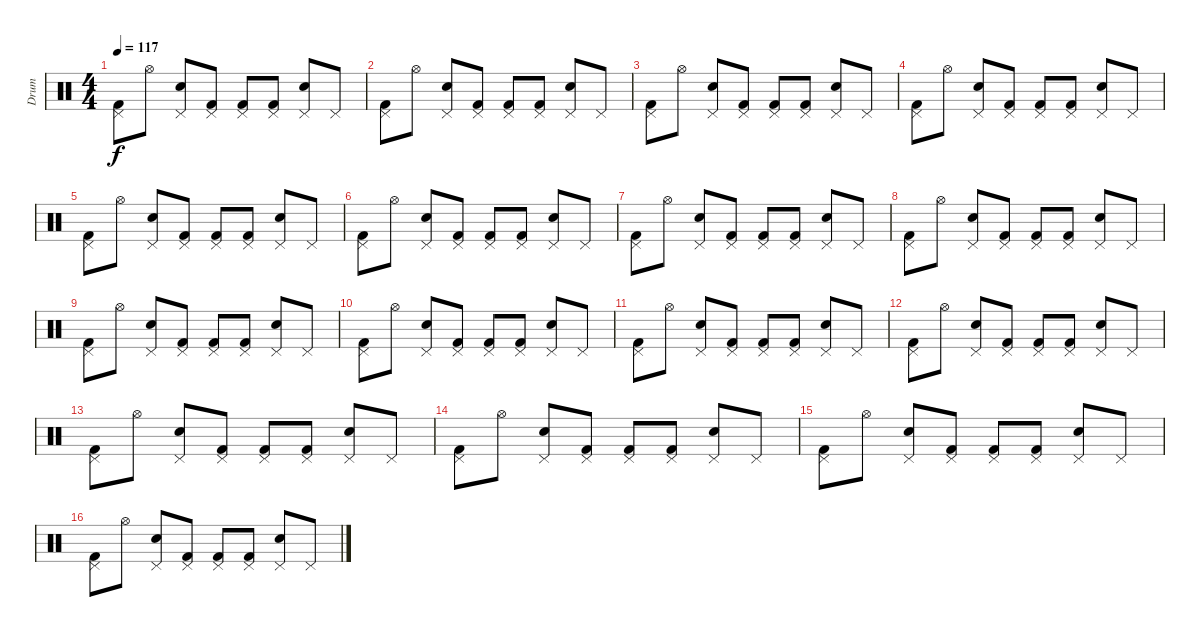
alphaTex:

\track ("Drum" "Drum") {instrument percussion}
\staff {score}
\articulation defaults
\ts (4 4)
\tempo 117
\clef neutral
\ks c
("Pedal Hi-Hat (hit)" "Kick (hit) 2").8{dy f} "Hi-Hat (open)".8 ("Pedal Hi-Hat (hit)" "Snare (hit) 2").8 ("Pedal Hi-Hat (hit)" "Kick (hit) 2").8 ("Pedal Hi-Hat (hit)" "Kick (hit) 2").8 ("Pedal Hi-Hat (hit)" "Kick (hit) 2").8 ("Pedal Hi-Hat (hit)" "Snare (hit) 2").8 "Pedal Hi-Hat (hit)".8 |
("Pedal Hi-Hat (hit)" "Kick (hit) 2").8 "Hi-Hat (open)".8 ("Pedal Hi-Hat (hit)" "Snare (hit) 2").8 ("Pedal Hi-Hat (hit)" "Kick (hit) 2").8 ("Pedal Hi-Hat (hit)" "Kick (hit) 2").8 ("Pedal Hi-Hat (hit)" "Kick (hit) 2").8 ("Pedal Hi-Hat (hit)" "Snare (hit) 2").8 "Pedal Hi-Hat (hit)".8 |
("Pedal Hi-Hat (hit)" "Kick (hit) 2").8 "Hi-Hat (open)".8 ("Pedal Hi-Hat (hit)" "Snare (hit) 2").8 ("Pedal Hi-Hat (hit)" "Kick (hit) 2").8 ("Pedal Hi-Hat (hit)" "Kick (hit) 2").8 ("Pedal Hi-Hat (hit)" "Kick (hit) 2").8 ("Pedal Hi-Hat (hit)" "Snare (hit) 2").8 "Pedal Hi-Hat (hit)".8 |
("Pedal Hi-Hat (hit)" "Kick (hit) 2").8 "Hi-Hat (open)".8 ("Pedal Hi-Hat (hit)" "Snare (hit) 2").8 ("Pedal Hi-Hat (hit)" "Kick (hit) 2").8 ("Pedal Hi-Hat (hit)" "Kick (hit) 2").8 ("Pedal Hi-Hat (hit)" "Kick (hit) 2").8 ("Pedal Hi-Hat (hit)" "Snare (hit) 2").8 "Pedal Hi-Hat (hit)".8 |
("Pedal Hi-Hat (hit)" "Kick (hit) 2").8 "Hi-Hat (open)".8 ("Pedal Hi-Hat (hit)" "Snare (hit) 2").8 ("Pedal Hi-Hat (hit)" "Kick (hit) 2").8 ("Pedal Hi-Hat (hit)" "Kick (hit) 2").8 ("Pedal Hi-Hat (hit)" "Kick (hit) 2").8 ("Pedal Hi-Hat (hit)" "Snare (hit) 2").8 "Pedal Hi-Hat (hit)".8 |
("Pedal Hi-Hat (hit)" "Kick (hit) 2").8 "Hi-Hat (open)".8 ("Pedal Hi-Hat (hit)" "Snare (hit) 2").8 ("Pedal Hi-Hat (hit)" "Kick (hit) 2").8 ("Pedal Hi-Hat (hit)" "Kick (hit) 2").8 ("Pedal Hi-Hat (hit)" "Kick (hit) 2").8 ("Pedal Hi-Hat (hit)" "Snare (hit) 2").8 "Pedal Hi-Hat (hit)".8 |
("Pedal Hi-Hat (hit)" "Kick (hit) 2").8 "Hi-Hat (open)".8 ("Pedal Hi-Hat (hit)" "Snare (hit) 2").8 ("Pedal Hi-Hat (hit)" "Kick (hit) 2").8 ("Pedal Hi-Hat (hit)" "Kick (hit) 2").8 ("Pedal Hi-Hat (hit)" "Kick (hit) 2").8 ("Pedal Hi-Hat (hit)" "Snare (hit) 2").8 "Pedal Hi-Hat (hit)".8 |
("Pedal Hi-Hat (hit)" "Kick (hit) 2").8 "Hi-Hat (open)".8 ("Pedal Hi-Hat (hit)" "Snare (hit) 2").8 ("Pedal Hi-Hat (hit)" "Kick (hit) 2").8 ("Pedal Hi-Hat (hit)" "Kick (hit) 2").8 ("Pedal Hi-Hat (hit)" "Kick (hit) 2").8 ("Pedal Hi-Hat (hit)" "Snare (hit) 2").8 "Pedal Hi-Hat (hit)".8 |
("Pedal Hi-Hat (hit)" "Kick (hit) 2").8 "Hi-Hat (open)".8 ("Pedal Hi-Hat (hit)" "Snare (hit) 2").8 ("Pedal Hi-Hat (hit)" "Kick (hit) 2").8 ("Pedal Hi-Hat (hit)" "Kick (hit) 2").8 ("Pedal Hi-Hat (hit)" "Kick (hit) 2").8 ("Pedal Hi-Hat (hit)" "Snare (hit) 2").8 "Pedal Hi-Hat (hit)".8 |
("Pedal Hi-Hat (hit)" "Kick (hit) 2").8 "Hi-Hat (open)".8 ("Pedal Hi-Hat (hit)" "Snare (hit) 2").8 ("Pedal Hi-Hat (hit)" "Kick (hit) 2").8 ("Pedal Hi-Hat (hit)" "Kick (hit) 2").8 ("Pedal Hi-Hat (hit)" "Kick (hit) 2").8 ("Pedal Hi-Hat (hit)" "Snare (hit) 2").8 "Pedal Hi-Hat (hit)".8 |
("Pedal Hi-Hat (hit)" "Kick (hit) 2").8 "Hi-Hat (open)".8 ("Pedal Hi-Hat (hit)" "Snare (hit) 2").8 ("Pedal Hi-Hat (hit)" "Kick (hit) 2").8 ("Pedal Hi-Hat (hit)" "Kick (hit) 2").8 ("Pedal Hi-Hat (hit)" "Kick (hit) 2").8 ("Pedal Hi-Hat (hit)" "Snare (hit) 2").8 "Pedal Hi-Hat (hit)".8 |
("Pedal Hi-Hat (hit)" "Kick (hit) 2").8 "Hi-Hat (open)".8 ("Pedal Hi-Hat (hit)" "Snare (hit) 2").8 ("Pedal Hi-Hat (hit)" "Kick (hit) 2").8 ("Pedal Hi-Hat (hit)" "Kick (hit) 2").8 ("Pedal Hi-Hat (hit)" "Kick (hit) 2").8 ("Pedal Hi-Hat (hit)" "Snare (hit) 2").8 "Pedal Hi-Hat (hit)".8 |
("Pedal Hi-Hat (hit)" "Kick (hit) 2").8 "Hi-Hat (open)".8 ("Pedal Hi-Hat (hit)" "Snare (hit) 2").8 ("Pedal Hi-Hat (hit)" "Kick (hit) 2").8 ("Pedal Hi-Hat (hit)" "Kick (hit) 2").8 ("Pedal Hi-Hat (hit)" "Kick (hit) 2").8 ("Pedal Hi-Hat (hit)" "Snare (hit) 2").8 "Pedal Hi-Hat (hit)".8 |
("Pedal Hi-Hat (hit)" "Kick (hit) 2").8 "Hi-Hat (open)".8 ("Pedal Hi-Hat (hit)" "Snare (hit) 2").8 ("Pedal Hi-Hat (hit)" "Kick (hit) 2").8 ("Pedal Hi-Hat (hit)" "Kick (hit) 2").8 ("Pedal Hi-Hat (hit)" "Kick (hit) 2").8 ("Pedal Hi-Hat (hit)" "Snare (hit) 2").8 "Pedal Hi-Hat (hit)".8 |
("Pedal Hi-Hat (hit)" "Kick (hit) 2").8 "Hi-Hat (open)".8 ("Pedal Hi-Hat (hit)" "Snare (hit) 2").8 ("Pedal Hi-Hat (hit)" "Kick (hit) 2").8 ("Pedal Hi-Hat (hit)" "Kick (hit) 2").8 ("Pedal Hi-Hat (hit)" "Kick (hit) 2").8 ("Pedal Hi-Hat (hit)" "Snare (hit) 2").8 "Pedal Hi-Hat (hit)".8 |
("Pedal Hi-Hat (hit)" "Kick (hit) 2").8 "Hi-Hat (open)".8 ("Pedal Hi-Hat (hit)" "Snare (hit) 2").8 ("Pedal Hi-Hat (hit)" "Kick (hit) 2").8 ("Pedal Hi-Hat (hit)" "Kick (hit) 2").8 ("Pedal Hi-Hat (hit)" "Kick (hit) 2").8 ("Pedal Hi-Hat (hit)" "Snare (hit) 2").8 "Pedal Hi-Hat (hit)".8
